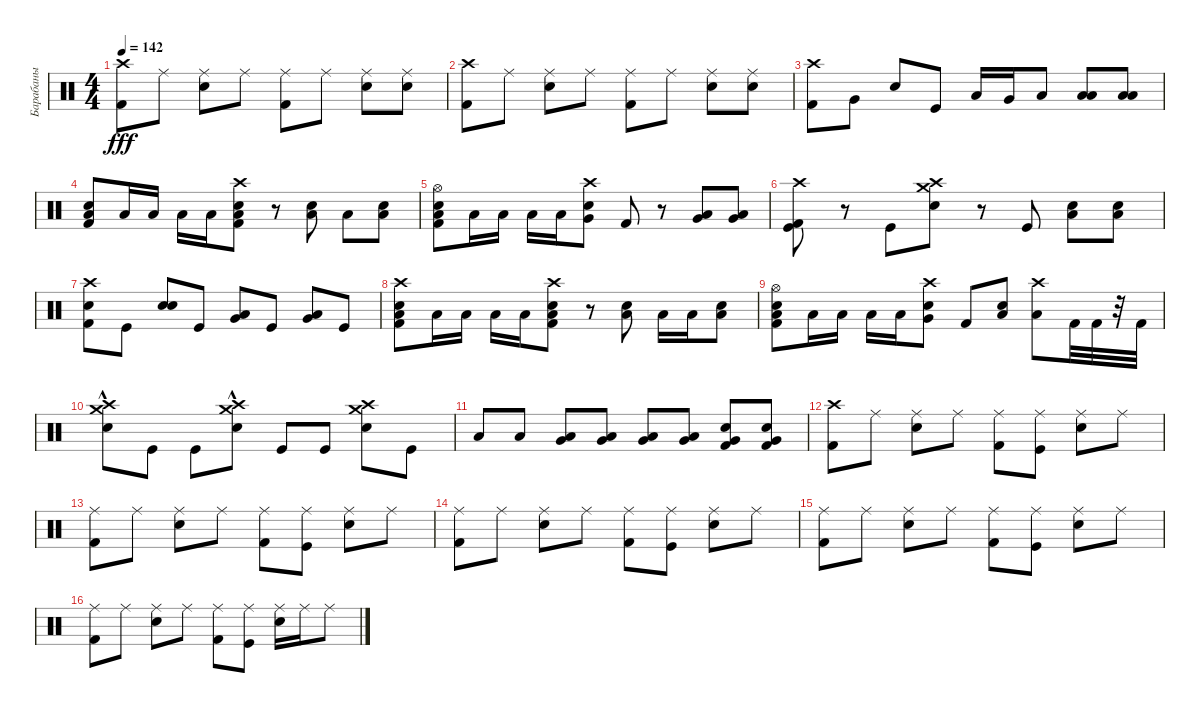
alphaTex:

\track ("Барабаны" "Барабаны") {instrument percussion}
\staff {score}
\articulation defaults
\ts (4 4)
\tempo 142
\clef neutral
\ks c
("Crash high (hit)" "Kick (hit) 2").8{dy fff} "Ride (middle)".8 ("Snare (hit) 2" "Ride (middle)").8 "Ride (middle)".8 ("Kick (hit) 2" "Ride (middle)").8 "Ride (middle)".8 ("Snare (hit) 2" "Ride (middle)").8 ("Snare (hit) 2" "Ride (middle)").8 |
("Crash high (hit)" "Kick (hit) 2").8 "Ride (middle)".8 ("Snare (hit) 2" "Ride (middle)").8 "Ride (middle)".8 ("Kick (hit) 2" "Ride (middle)").8 "Ride (middle)".8 ("Snare (hit) 2" "Ride (middle)").8 ("Snare (hit) 2" "Ride (middle)").8 |
("Crash high (hit)" "Kick (hit) 2").8 "Very Low Tom (hit)".8 "Electric Snare (hit)".8 "Kick (hit)".8 "Low Tom (hit)".16 "Very Low Tom (hit)".16 "Low Tom (hit)".8 ("Low Floor Tom (hit)" "Low Tom (hit)").8 ("Low Floor Tom (hit)" "Low Tom (hit)").8 |
("Kick (hit) 2" "Low Tom (hit)" "Electric Snare (hit)").8 "Low Tom (hit)".16 "Low Tom (hit)".16 "Low Tom (hit)".16 "Low Tom (hit)".16 ("Kick (hit) 2" "Crash high (hit)" "Low Tom (hit)" "Electric Snare (hit)").8 r.8 ("Low Tom (hit)" "Electric Snare (hit)").8 "Low Floor Tom (hit)".8 ("Low Tom (hit)" "Electric Snare (hit)").8 |
("Kick (hit) 2" "Hi-Hat (open)" "Snare (hit) 2" "Low Tom (hit)").8 "Low Tom (hit)".16 "Low Tom (hit)".16 "Low Tom (hit)".16 "Low Tom (hit)".16 ("Very Low Tom (hit)" "Crash high (hit)" "Snare (hit) 2").8 "Kick (hit) 2".8 r.8 ("Low Tom (hit)" "Very Low Tom (hit)").8 ("Very Low Tom (hit)" "Low Floor Tom (hit)").8 |
("Kick (hit)" "Crash high (hit)" "Kick (hit) 2").8 r.8 "Kick (hit)".8 ("Crash high (hit)" "Crash medium (hit)" "Snare (hit) 2").8 r.8 "Kick (hit)".8 ("Low Tom (hit)" "Electric Snare (hit)").8 ("Low Tom (hit)" "Electric Snare (hit)").8 |
("Snare (hit) 2" "Crash high (hit)" "Kick (hit) 2").8 "Kick (hit)".8 ("Electric Snare (hit)" "Snare (hit) 2").8 "Kick (hit)".8 ("Low Tom (hit)" "Very Low Tom (hit)").8 "Kick (hit)".8 ("Low Tom (hit)" "Very Low Tom (hit)").8 "Kick (hit)".8 |
("Crash high (hit)" "Kick (hit) 2" "Low Tom (hit)" "Electric Snare (hit)").8 "Low Tom (hit)".16 "Low Tom (hit)".16 "Low Tom (hit)".16 "Low Tom (hit)".16 ("Kick (hit) 2" "Crash high (hit)" "Low Tom (hit)" "Electric Snare (hit)").8 r.8 ("Low Tom (hit)" "Electric Snare (hit)").8 "Low Floor Tom (hit)".16 "Low Floor Tom (hit)".16 ("Low Tom (hit)" "Electric Snare (hit)").8 |
("Kick (hit) 2" "Hi-Hat (open)" "Snare (hit) 2" "Low Tom (hit)").8 "Low Tom (hit)".16 "Low Tom (hit)".16 "Low Tom (hit)".16 "Low Tom (hit)".16 ("Very Low Tom (hit)" "Crash high (hit)" "Snare (hit) 2").8 "Kick (hit) 2".8 ("Snare (hit) 2" "Low Tom (hit)").8 ("Crash high (hit)" "Low Floor Tom (hit)").8 "Kick (hit) 2".32 "Kick (hit) 2".32 r.32 "Kick (hit) 2".32 |
("Crash high (hit)"{hac} "Crash medium (hit)"{hac} "Snare (hit) 2"{hac}).8 "Kick (hit)".8 "Kick (hit)".8 ("Crash medium (hit)"{hac} "Crash high (hit)"{hac} "Snare (hit) 2"{hac}).8 "Kick (hit)".8 "Kick (hit)".8 ("Crash medium (hit)" "Crash high (hit)" "Snare (hit) 2").8 "Kick (hit)".8 |
"Low Floor Tom (hit)".8 "Low Floor Tom (hit)".8 ("Low Floor Tom (hit)" "Very Low Tom (hit)").8 ("Low Floor Tom (hit)" "Very Low Tom (hit)").8 ("Very Low Tom (hit)" "Low Tom (hit)").8 ("Very Low Tom (hit)" "Low Tom (hit)").8 ("Kick (hit) 2" "Very Low Tom (hit)" "Snare (hit) 2").8 ("Kick (hit) 2" "Very Low Tom (hit)" "Snare (hit) 2").8 |
("Crash high (hit)" "Kick (hit) 2").8 "Ride (middle)".8 ("Snare (hit) 2" "Ride (middle)").8 "Ride (middle)".8 ("Kick (hit) 2" "Ride (middle)").8 ("Kick (hit)" "Ride (middle)").8 ("Snare (hit) 2" "Ride (middle)").8 "Ride (middle)".8 |
("Kick (hit) 2" "Ride (middle)").8 "Ride (middle)".8 ("Snare (hit) 2" "Ride (middle)").8 "Ride (middle)".8 ("Kick (hit) 2" "Ride (middle)").8 ("Kick (hit)" "Ride (middle)").8 ("Snare (hit) 2" "Ride (middle)").8 "Ride (middle)".8 |
("Kick (hit) 2" "Ride (middle)").8 "Ride (middle)".8 ("Snare (hit) 2" "Ride (middle)").8 "Ride (middle)".8 ("Kick (hit) 2" "Ride (middle)").8 ("Kick (hit)" "Ride (middle)").8 ("Snare (hit) 2" "Ride (middle)").8 "Ride (middle)".8 |
("Kick (hit) 2" "Ride (middle)").8 "Ride (middle)".8 ("Snare (hit) 2" "Ride (middle)").8 "Ride (middle)".8 ("Kick (hit) 2" "Ride (middle)").8 ("Kick (hit)" "Ride (middle)").8 ("Snare (hit) 2" "Ride (middle)").8 "Ride (middle)".8 |
("Ride (middle)" "Kick (hit) 2").8 "Ride (middle)".8 ("Ride (middle)" "Snare (hit) 2").8 "Ride (middle)".8 ("Kick (hit) 2" "Ride (middle)").8 ("Kick (hit)" "Ride (middle)").8 ("Snare (hit) 2" "Ride (middle)").16 "Ride (middle)".16 "Ride (middle)".8
